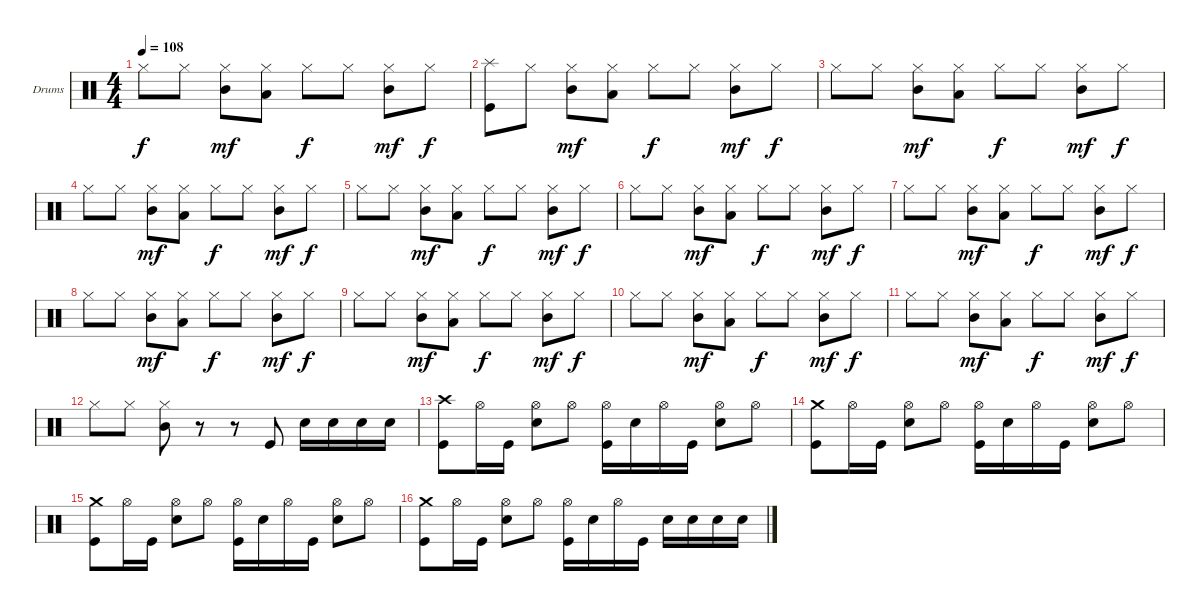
\defaultSystemsLayout 4
\bracketExtendMode groupsimilarinstruments
\firstSystemTrackNameOrientation horizontal
\otherSystemsTrackNameOrientation horizontal
\track ("Drumkit" "Drums") {instrument percussion}
\staff {score}
\articulation defaults
\ts (4 4)
\tempo 108
\clef neutral
\ks c "Hi-Hat (closed)".8{dy f} "Hi-Hat (closed)".8
("Hi-Hat (closed)" "Mid Tom (hit)").8{dy mf} ("Hi-Hat (closed)" "Low Tom (hit)").8 "Hi-Hat (closed)".8{dy f} "Hi-Hat (closed)".8 ("Hi-Hat (closed)" "Mid Tom (hit)").8{dy mf} "Hi-Hat (closed)".8{dy f} |
("Kick (hit)" "Splash (hit)").8 "Hi-Hat (closed)".8 ("Hi-Hat (closed)" "Mid Tom (hit)").8{dy mf} ("Hi-Hat (closed)" "Low Tom (hit)").8 "Hi-Hat (closed)".8{dy f} "Hi-Hat (closed)".8 ("Hi-Hat (closed)" "Mid Tom (hit)").8{dy mf} "Hi-Hat (closed)".8{dy f} |
"Hi-Hat (closed)".8 "Hi-Hat (closed)".8 ("Hi-Hat (closed)" "Mid Tom (hit)").8{dy mf} ("Hi-Hat (closed)" "Low Tom (hit)").8 "Hi-Hat (closed)".8{dy f} "Hi-Hat (closed)".8 ("Hi-Hat (closed)" "Mid Tom (hit)").8{dy mf} "Hi-Hat (closed)".8{dy f} |
"Hi-Hat (closed)".8 "Hi-Hat (closed)".8 ("Hi-Hat (closed)" "Mid Tom (hit)").8{dy mf} ("Hi-Hat (closed)" "Low Tom (hit)").8 "Hi-Hat (closed)".8{dy f} "Hi-Hat (closed)".8 ("Hi-Hat (closed)" "Mid Tom (hit)").8{dy mf} "Hi-Hat (closed)".8{dy f} |
"Hi-Hat (closed)".8 "Hi-Hat (closed)".8 ("Hi-Hat (closed)" "Mid Tom (hit)").8{dy mf} ("Hi-Hat (closed)" "Low Tom (hit)").8 "Hi-Hat (closed)".8{dy f} "Hi-Hat (closed)".8 ("Hi-Hat (closed)" "Mid Tom (hit)").8{dy mf} "Hi-Hat (closed)".8{dy f} |
"Hi-Hat (closed)".8 "Hi-Hat (closed)".8 ("Hi-Hat (closed)" "Mid Tom (hit)").8{dy mf} ("Hi-Hat (closed)" "Low Tom (hit)").8 "Hi-Hat (closed)".8{dy f} "Hi-Hat (closed)".8 ("Hi-Hat (closed)" "Mid Tom (hit)").8{dy mf} "Hi-Hat (closed)".8{dy f} |
"Hi-Hat (closed)".8 "Hi-Hat (closed)".8 ("Hi-Hat (closed)" "Mid Tom (hit)").8{dy mf} ("Hi-Hat (closed)" "Low Tom (hit)").8 "Hi-Hat (closed)".8{dy f} "Hi-Hat (closed)".8 ("Hi-Hat (closed)" "Mid Tom (hit)").8{dy mf} "Hi-Hat (closed)".8{dy f} |
"Hi-Hat (closed)".8 "Hi-Hat (closed)".8 ("Hi-Hat (closed)" "Mid Tom (hit)").8{dy mf} ("Hi-Hat (closed)" "Low Tom (hit)").8 "Hi-Hat (closed)".8{dy f} "Hi-Hat (closed)".8 ("Hi-Hat (closed)" "Mid Tom (hit)").8{dy mf} "Hi-Hat (closed)".8{dy f} |
"Hi-Hat (closed)".8 "Hi-Hat (closed)".8 ("Hi-Hat (closed)" "Mid Tom (hit)").8{dy mf} ("Hi-Hat (closed)" "Low Tom (hit)").8 "Hi-Hat (closed)".8{dy f} "Hi-Hat (closed)".8 ("Hi-Hat (closed)" "Mid Tom (hit)").8{dy mf} "Hi-Hat (closed)".8{dy f} |
"Hi-Hat (closed)".8 "Hi-Hat (closed)".8 ("Hi-Hat (closed)" "Mid Tom (hit)").8{dy mf} ("Hi-Hat (closed)" "Low Tom (hit)").8 "Hi-Hat (closed)".8{dy f} "Hi-Hat (closed)".8 ("Hi-Hat (closed)" "Mid Tom (hit)").8{dy mf} "Hi-Hat (closed)".8{dy f} |
"Hi-Hat (closed)".8 "Hi-Hat (closed)".8 ("Hi-Hat (closed)" "Mid Tom (hit)").8{dy mf} ("Hi-Hat (closed)" "Low Tom (hit)").8 "Hi-Hat (closed)".8{dy f} "Hi-Hat (closed)".8 ("Hi-Hat (closed)" "Mid Tom (hit)").8{dy mf} "Hi-Hat (closed)".8{dy f} |
"Hi-Hat (closed)".8 "Hi-Hat (closed)".8 ("Hi-Hat (closed)" "Mid Tom (hit)").8 r.8 r.8 "Kick (hit)".8 "Snare (hit) 2".16 "Snare (hit) 2".16 "Snare (hit) 2".16 "Snare (hit) 2".16 |
("Kick (hit)" "Crash high (hit)").8 "Hi-Hat (open)".16 "Kick (hit)".16 ("Hi-Hat (open)" "Snare (hit) 2").8 "Hi-Hat (open)".8 ("Hi-Hat (open)" "Kick (hit)").16 "Snare (hit) 2".16 "Hi-Hat (open)".16 "Kick (hit)".16 ("Hi-Hat (open)" "Snare (hit) 2").8 "Hi-Hat (open)".8 |
("Kick (hit)" "Crash medium (hit)").8 "Hi-Hat (open)".16 "Kick (hit)".16 ("Hi-Hat (open)" "Snare (hit) 2").8 "Hi-Hat (open)".8 ("Hi-Hat (open)" "Kick (hit)").16 "Snare (hit) 2".16 "Hi-Hat (open)".16 "Kick (hit)".16 ("Hi-Hat (open)" "Snare (hit) 2").8 "Hi-Hat (open)".8 |
("Kick (hit)" "Crash medium (hit)").8 "Hi-Hat (open)".16 "Kick (hit)".16 ("Hi-Hat (open)" "Snare (hit) 2").8 "Hi-Hat (open)".8 ("Hi-Hat (open)" "Kick (hit)").16 "Snare (hit) 2".16 "Hi-Hat (open)".16 "Kick (hit)".16 ("Hi-Hat (open)" "Snare (hit) 2").8 "Hi-Hat (open)".8 |
("Kick (hit)" "Crash medium (hit)").8 "Hi-Hat (open)".16 "Kick (hit)".16 ("Hi-Hat (open)" "Snare (hit) 2").8 "Hi-Hat (open)".8 ("Hi-Hat (open)" "Kick (hit)").16 "Snare (hit) 2".16 "Hi-Hat (open)".16 "Kick (hit)".16 "Snare (hit) 2".16 "Snare (hit) 2".16 "Snare (hit) 2".16 "Snare (hit) 2".16
